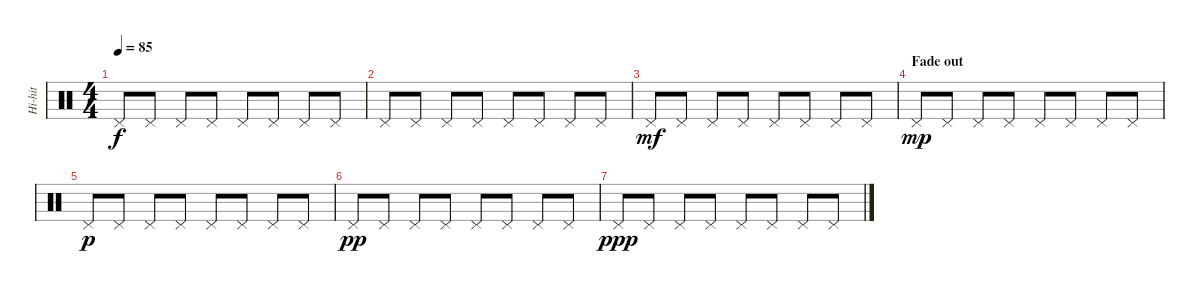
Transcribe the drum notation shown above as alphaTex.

\track ("Hi-hit" "Hi-hit") {instrument percussion}
\staff {score}
\articulation defaults
\ts (4 4)
\tempo 85
\clef neutral
\ks c "Pedal Hi-Hat (hit)".8{dy f} "Pedal Hi-Hat (hit)".8 "Pedal Hi-Hat (hit)".8 "Pedal Hi-Hat (hit)".8 "Pedal Hi-Hat (hit)".8 "Pedal Hi-Hat (hit)".8 "Pedal Hi-Hat (hit)".8 "Pedal Hi-Hat (hit)".8
|
"Pedal Hi-Hat (hit)".8 "Pedal Hi-Hat (hit)".8 "Pedal Hi-Hat (hit)".8 "Pedal Hi-Hat (hit)".8 "Pedal Hi-Hat (hit)".8 "Pedal Hi-Hat (hit)".8 "Pedal Hi-Hat (hit)".8 "Pedal Hi-Hat (hit)".8 |
"Pedal Hi-Hat (hit)".8{dy mf} "Pedal Hi-Hat (hit)".8 "Pedal Hi-Hat (hit)".8 "Pedal Hi-Hat (hit)".8 "Pedal Hi-Hat (hit)".8 "Pedal Hi-Hat (hit)".8 "Pedal Hi-Hat (hit)".8 "Pedal Hi-Hat (hit)".8 |
\section ("" "Fade out")
"Pedal Hi-Hat (hit)".8{dy mp} "Pedal Hi-Hat (hit)".8 "Pedal Hi-Hat (hit)".8 "Pedal Hi-Hat (hit)".8 "Pedal Hi-Hat (hit)".8 "Pedal Hi-Hat (hit)".8 "Pedal Hi-Hat (hit)".8 "Pedal Hi-Hat (hit)".8 |
"Pedal Hi-Hat (hit)".8{dy p} "Pedal Hi-Hat (hit)".8 "Pedal Hi-Hat (hit)".8 "Pedal Hi-Hat (hit)".8 "Pedal Hi-Hat (hit)".8 "Pedal Hi-Hat (hit)".8 "Pedal Hi-Hat (hit)".8 "Pedal Hi-Hat (hit)".8 |
"Pedal Hi-Hat (hit)".8{dy pp} "Pedal Hi-Hat (hit)".8 "Pedal Hi-Hat (hit)".8 "Pedal Hi-Hat (hit)".8 "Pedal Hi-Hat (hit)".8 "Pedal Hi-Hat (hit)".8 "Pedal Hi-Hat (hit)".8 "Pedal Hi-Hat (hit)".8 |
"Pedal Hi-Hat (hit)".8{dy ppp} "Pedal Hi-Hat (hit)".8 "Pedal Hi-Hat (hit)".8 "Pedal Hi-Hat (hit)".8 "Pedal Hi-Hat (hit)".8 "Pedal Hi-Hat (hit)".8 "Pedal Hi-Hat (hit)".8 "Pedal Hi-Hat (hit)".8
